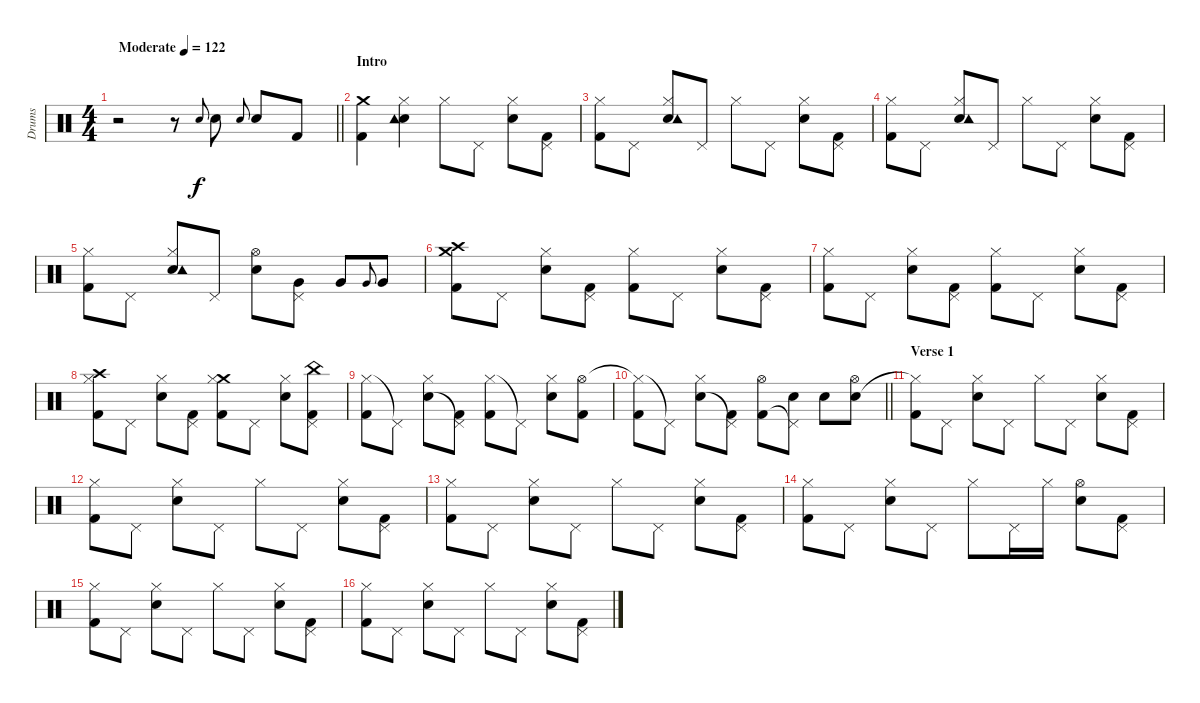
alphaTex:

\track ("Drums" "Drums") {instrument percussion}
\staff {score}
\articulation defaults
\ts (4 4)
\tempo (122 "Moderate")
\clef neutral
\barLineRight lightlight
\ks c
r.2{dy f} r.8 "Snare (hit) 2".8{gr onbeat} "Snare (hit) 2".8 "Snare (hit) 2".8{gr onbeat} "Snare (hit) 2".8 "Kick (hit) 2".8 |
\section ("" "Intro")
("Crash medium (hit)" "Kick (hit) 2").4 ("Snare (hit) 2" "Hi-Hat (closed)" "Tambourine (hit)").4 "Hi-Hat (closed)".8 "Pedal Hi-Hat (hit)".8 ("Snare (hit) 2" "Hi-Hat (closed)").8 ("Pedal Hi-Hat (hit)" "Kick (hit) 2").8 |
("Hi-Hat (closed)" "Kick (hit) 2").8 "Pedal Hi-Hat (hit)".8 ("Snare (hit) 2" "Hi-Hat (closed)" "Tambourine (hit)").8 "Pedal Hi-Hat (hit)".8 "Hi-Hat (closed)".8 "Pedal Hi-Hat (hit)".8 ("Snare (hit) 2" "Hi-Hat (closed)").8 ("Pedal Hi-Hat (hit)" "Kick (hit) 2").8 |
("Hi-Hat (closed)" "Kick (hit) 2").8 "Pedal Hi-Hat (hit)".8 ("Snare (hit) 2" "Hi-Hat (closed)" "Tambourine (hit)").8 "Pedal Hi-Hat (hit)".8 "Hi-Hat (closed)".8 "Pedal Hi-Hat (hit)".8 ("Snare (hit) 2" "Hi-Hat (closed)").8 ("Pedal Hi-Hat (hit)" "Kick (hit) 2").8 |
("Hi-Hat (closed)" "Kick (hit) 2").8 "Pedal Hi-Hat (hit)".8 ("Snare (hit) 2" "Hi-Hat (closed)" "Tambourine (hit)").8 "Pedal Hi-Hat (hit)".8 ("Snare (hit) 2" "Hi-Hat (open)").8 ("Pedal Hi-Hat (hit)" "Very Low Tom (hit)").8 "Very Low Tom (hit)".8 "Very Low Tom (hit)".8{gr onbeat} "Very Low Tom (hit)".8 |
("Crash medium (hit)" "Crash high (hit)" "Kick (hit) 2").8 "Pedal Hi-Hat (hit)".8 ("Snare (hit) 2" "Hi-Hat (closed)").8 ("Pedal Hi-Hat (hit)" "Kick (hit) 2").8 ("Hi-Hat (closed)" "Kick (hit) 2").8 "Pedal Hi-Hat (hit)".8 ("Snare (hit) 2" "Hi-Hat (closed)").8 ("Pedal Hi-Hat (hit)" "Kick (hit) 2").8 |
("Hi-Hat (closed)" "Kick (hit) 2").8 "Pedal Hi-Hat (hit)".8 ("Snare (hit) 2" "Hi-Hat (closed)").8 ("Pedal Hi-Hat (hit)" "Kick (hit) 2").8 ("Hi-Hat (closed)" "Kick (hit) 2").8 "Pedal Hi-Hat (hit)".8 ("Snare (hit) 2" "Hi-Hat (closed)").8 ("Pedal Hi-Hat (hit)" "Kick (hit) 2").8 |
("Crash high (hit)" "Hi-Hat (closed)" "Kick (hit) 2").8 "Pedal Hi-Hat (hit)".8 ("Snare (hit) 2" "Hi-Hat (closed)").8 ("Pedal Hi-Hat (hit)" "Kick (hit) 2").8 ("Crash medium (hit)" "Hi-Hat (closed)" "Kick (hit) 2").8 "Pedal Hi-Hat (hit)".8 ("Snare (hit) 2" "Hi-Hat (closed)").8 ("China (hit)" "Pedal Hi-Hat (hit)" "Kick (hit) 2").8 |
("Hi-Hat (closed)" "Kick (hit) 2").8 "Pedal Hi-Hat (hit)"{t}.8 ("Snare (hit) 2" "Hi-Hat (closed)").8 ("Pedal Hi-Hat (hit)"{t} "Kick (hit) 2").8 ("Hi-Hat (closed)" "Kick (hit) 2").8 "Pedal Hi-Hat (hit)"{t}.8 ("Snare (hit) 2" "Hi-Hat (closed)").8 ("Hi-Hat (open)" "Kick (hit) 2").8 |
\barLineRight lightlight
("Hi-Hat (closed)"{t} "Kick (hit) 2").8 "Pedal Hi-Hat (hit)"{t}.8 ("Snare (hit) 2" "Hi-Hat (closed)").8 ("Pedal Hi-Hat (hit)"{t} "Kick (hit) 2").8 ("Hi-Hat (open)" "Kick (hit) 2").8 ("Snare (hit) 2" "Pedal Hi-Hat (hit)"{t}).8 "Snare (hit) 2".8 ("Snare (hit) 2" "Hi-Hat (open)").8 |
\section ("" "Verse 1")
("Hi-Hat (closed)"{t} "Kick (hit) 2").8 "Pedal Hi-Hat (hit)".8 ("Snare (hit) 2" "Hi-Hat (closed)").8 "Pedal Hi-Hat (hit)".8 "Hi-Hat (closed)".8 "Pedal Hi-Hat (hit)".8 ("Snare (hit) 2" "Hi-Hat (closed)").8 ("Pedal Hi-Hat (hit)" "Kick (hit) 2").8 |
("Hi-Hat (closed)" "Kick (hit) 2").8 "Pedal Hi-Hat (hit)".8 ("Snare (hit) 2" "Hi-Hat (closed)").8 "Pedal Hi-Hat (hit)".8 "Hi-Hat (closed)".8 "Pedal Hi-Hat (hit)".8 ("Snare (hit) 2" "Hi-Hat (closed)").8 ("Pedal Hi-Hat (hit)" "Kick (hit) 2").8 |
("Hi-Hat (closed)" "Kick (hit) 2").8 "Pedal Hi-Hat (hit)".8 ("Snare (hit) 2" "Hi-Hat (closed)").8 "Pedal Hi-Hat (hit)".8 "Hi-Hat (closed)".8 "Pedal Hi-Hat (hit)".8 ("Snare (hit) 2" "Hi-Hat (closed)").8 ("Pedal Hi-Hat (hit)" "Kick (hit) 2").8 |
("Hi-Hat (closed)" "Kick (hit) 2").8 "Pedal Hi-Hat (hit)".8 ("Snare (hit) 2" "Hi-Hat (closed)").8 "Pedal Hi-Hat (hit)".8 "Hi-Hat (closed)".8 "Pedal Hi-Hat (hit)".16 "Hi-Hat (closed)".16 ("Snare (hit) 2" "Hi-Hat (open)").8 ("Pedal Hi-Hat (hit)" "Kick (hit) 2").8 |
("Hi-Hat (closed)" "Kick (hit) 2").8 "Pedal Hi-Hat (hit)".8 ("Snare (hit) 2" "Hi-Hat (closed)").8 "Pedal Hi-Hat (hit)".8 "Hi-Hat (closed)".8 "Pedal Hi-Hat (hit)".8 ("Snare (hit) 2" "Hi-Hat (closed)").8 ("Pedal Hi-Hat (hit)" "Kick (hit) 2").8 |
("Hi-Hat (closed)" "Kick (hit) 2").8 "Pedal Hi-Hat (hit)".8 ("Snare (hit) 2" "Hi-Hat (closed)").8 "Pedal Hi-Hat (hit)".8 "Hi-Hat (closed)".8 "Pedal Hi-Hat (hit)".8 ("Snare (hit) 2" "Hi-Hat (closed)").8 ("Pedal Hi-Hat (hit)" "Kick (hit) 2").8
